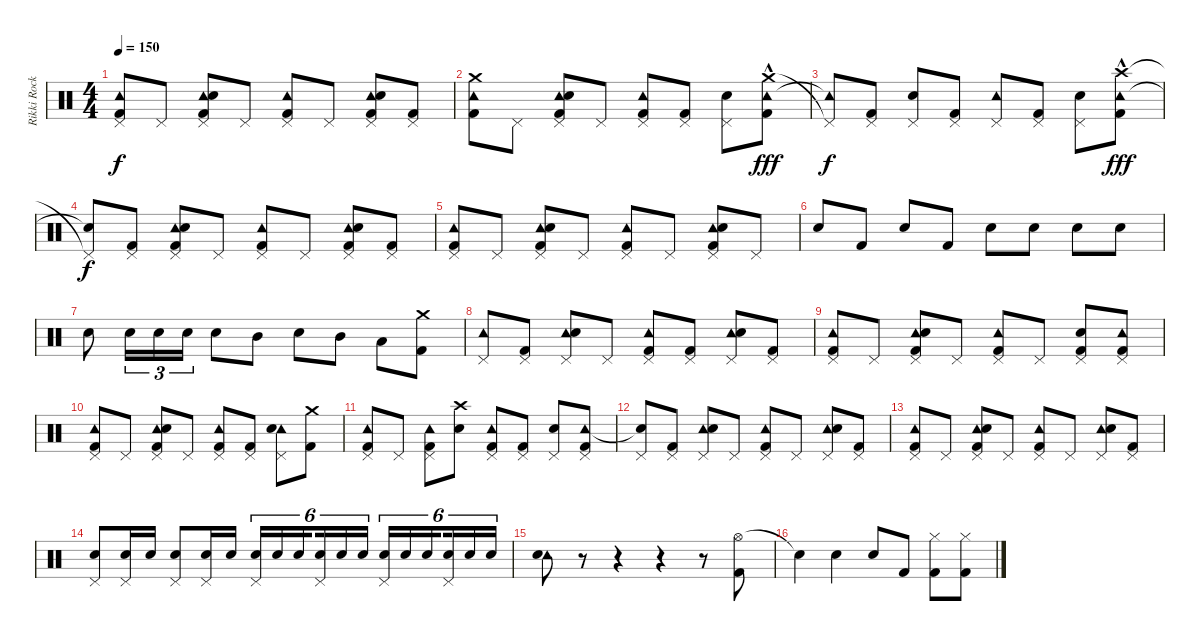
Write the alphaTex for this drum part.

\track ("Rikki Rockett - Drums" "Rikki Rock") {instrument percussion}
\staff {score}
\articulation defaults
\ts (4 4)
\tempo 150
\clef neutral
\ks c
("Tambourine (hit)" "Pedal Hi-Hat (hit)" "Kick (hit) 2").8{dy f} "Pedal Hi-Hat (hit)".8 ("Tambourine (hit)" "Pedal Hi-Hat (hit)" "Electric Snare (hit)" "Kick (hit) 2").8 "Pedal Hi-Hat (hit)".8 ("Tambourine (hit)" "Pedal Hi-Hat (hit)" "Kick (hit) 2").8 "Pedal Hi-Hat (hit)".8 ("Tambourine (hit)" "Pedal Hi-Hat (hit)" "Electric Snare (hit)" "Kick (hit) 2").8 ("Pedal Hi-Hat (hit)" "Kick (hit) 2").8 |
("Tambourine (hit)" "Crash medium (hit)" "Kick (hit) 2").8 "Pedal Hi-Hat (hit)".8 ("Tambourine (hit)" "Pedal Hi-Hat (hit)" "Electric Snare (hit)" "Kick (hit) 2").8 "Pedal Hi-Hat (hit)".8 ("Tambourine (hit)" "Pedal Hi-Hat (hit)" "Kick (hit) 2").8 ("Pedal Hi-Hat (hit)" "Kick (hit) 2").8 ("Pedal Hi-Hat (hit)" "Electric Snare (hit)").8 ("Tambourine (hit)"{hac} "Crash medium (hit)" "Kick (hit) 2").8{dy fff} |
("Tambourine (hit)"{t} "Pedal Hi-Hat (hit)"{t}).8{dy f} ("Pedal Hi-Hat (hit)" "Kick (hit) 2").8 ("Pedal Hi-Hat (hit)" "Electric Snare (hit)").8 ("Pedal Hi-Hat (hit)" "Kick (hit) 2").8 ("Tambourine (hit)" "Pedal Hi-Hat (hit)").8 ("Pedal Hi-Hat (hit)" "Kick (hit) 2").8 ("Pedal Hi-Hat (hit)" "Electric Snare (hit)").8 ("Tambourine (hit)"{hac} "Crash high (hit)" "Kick (hit) 2").8{dy fff} |
("Snare (hit)"{t} "Pedal Hi-Hat (hit)"{t}).8{dy f} ("Pedal Hi-Hat (hit)" "Kick (hit) 2").8 ("Tambourine (hit)" "Pedal Hi-Hat (hit)" "Electric Snare (hit)" "Kick (hit) 2").8 "Pedal Hi-Hat (hit)".8 ("Tambourine (hit)" "Pedal Hi-Hat (hit)" "Kick (hit) 2").8 "Pedal Hi-Hat (hit)".8 ("Tambourine (hit)" "Pedal Hi-Hat (hit)" "Electric Snare (hit)" "Kick (hit) 2").8 ("Pedal Hi-Hat (hit)" "Kick (hit) 2").8 |
("Tambourine (hit)" "Pedal Hi-Hat (hit)" "Kick (hit) 2").8 "Pedal Hi-Hat (hit)".8 ("Tambourine (hit)" "Pedal Hi-Hat (hit)" "Electric Snare (hit)" "Kick (hit) 2").8 "Pedal Hi-Hat (hit)".8 ("Tambourine (hit)" "Pedal Hi-Hat (hit)" "Kick (hit) 2").8 "Pedal Hi-Hat (hit)".8 ("Tambourine (hit)" "Pedal Hi-Hat (hit)" "Electric Snare (hit)" "Kick (hit) 2").8 "Pedal Hi-Hat (hit)".8 |
"Electric Snare (hit)".8 "Kick (hit) 2".8 "Electric Snare (hit)".8 "Kick (hit) 2".8 "Electric Snare (hit)".8 "Electric Snare (hit)".8 "Electric Snare (hit)".8 "Electric Snare (hit)".8 |
"Electric Snare (hit)".8 "Electric Snare (hit)".16{tu (3 2)} "Electric Snare (hit)".16{tu (3 2)} "Electric Snare (hit)".16{tu (3 2)} "Electric Snare (hit)".8 "Mid Tom (hit)".8 "Electric Snare (hit)".8 "Mid Tom (hit)".8 "Low Tom (hit)".8 ("Crash medium (hit)" "Kick (hit) 2").8 |
("Tambourine (hit)" "Pedal Hi-Hat (hit)").8 ("Pedal Hi-Hat (hit)" "Kick (hit) 2").8 ("Tambourine (hit)" "Pedal Hi-Hat (hit)" "Electric Snare (hit)").8 "Pedal Hi-Hat (hit)".8 ("Tambourine (hit)" "Pedal Hi-Hat (hit)" "Kick (hit) 2").8 ("Pedal Hi-Hat (hit)" "Kick (hit) 2").8 ("Tambourine (hit)" "Pedal Hi-Hat (hit)" "Electric Snare (hit)").8 ("Pedal Hi-Hat (hit)" "Kick (hit) 2").8 |
("Tambourine (hit)" "Pedal Hi-Hat (hit)" "Kick (hit) 2").8 "Pedal Hi-Hat (hit)".8 ("Tambourine (hit)" "Pedal Hi-Hat (hit)" "Electric Snare (hit)" "Kick (hit) 2").8 "Pedal Hi-Hat (hit)".8 ("Tambourine (hit)" "Pedal Hi-Hat (hit)" "Kick (hit) 2").8 "Pedal Hi-Hat (hit)".8 ("Pedal Hi-Hat (hit)" "Electric Snare (hit)" "Kick (hit) 2").8 ("Tambourine (hit)" "Pedal Hi-Hat (hit)" "Kick (hit) 2").8 |
("Tambourine (hit)" "Pedal Hi-Hat (hit)" "Kick (hit) 2").8 "Pedal Hi-Hat (hit)".8 ("Tambourine (hit)" "Pedal Hi-Hat (hit)" "Electric Snare (hit)" "Kick (hit) 2").8 "Pedal Hi-Hat (hit)".8 ("Tambourine (hit)" "Pedal Hi-Hat (hit)" "Kick (hit) 2").8 ("Pedal Hi-Hat (hit)" "Kick (hit) 2").8 ("Tambourine (hit)" "Pedal Hi-Hat (hit)" "Electric Snare (hit)").8 ("Crash medium (hit)" "Kick (hit) 2").8 |
("Tambourine (hit)" "Pedal Hi-Hat (hit)" "Kick (hit) 2").8 "Pedal Hi-Hat (hit)".8 ("Tambourine (hit)" "Pedal Hi-Hat (hit)" "Kick (hit) 2").8 ("Crash high (hit)" "Electric Snare (hit)").8 ("Tambourine (hit)" "Pedal Hi-Hat (hit)" "Kick (hit) 2").8 ("Pedal Hi-Hat (hit)" "Kick (hit) 2").8 ("Pedal Hi-Hat (hit)" "Electric Snare (hit)").8 ("Tambourine (hit)" "Pedal Hi-Hat (hit)" "Kick (hit) 2").8 |
("Snare (hit)"{t} "Pedal Hi-Hat (hit)").8 ("Pedal Hi-Hat (hit)" "Kick (hit) 2").8 ("Tambourine (hit)" "Pedal Hi-Hat (hit)" "Electric Snare (hit)").8 "Pedal Hi-Hat (hit)".8 ("Tambourine (hit)" "Pedal Hi-Hat (hit)" "Kick (hit) 2").8 "Pedal Hi-Hat (hit)".8 ("Tambourine (hit)" "Pedal Hi-Hat (hit)" "Electric Snare (hit)").8 ("Pedal Hi-Hat (hit)" "Kick (hit) 2").8 |
("Tambourine (hit)" "Pedal Hi-Hat (hit)" "Kick (hit) 2").8 "Pedal Hi-Hat (hit)".8 ("Tambourine (hit)" "Pedal Hi-Hat (hit)" "Electric Snare (hit)" "Kick (hit) 2").8 "Pedal Hi-Hat (hit)".8 ("Tambourine (hit)" "Pedal Hi-Hat (hit)" "Kick (hit) 2").8 "Pedal Hi-Hat (hit)".8 ("Tambourine (hit)" "Pedal Hi-Hat (hit)" "Electric Snare (hit)").8 ("Pedal Hi-Hat (hit)" "Kick (hit) 2").8 |
("Pedal Hi-Hat (hit)" "Electric Snare (hit)").8 ("Pedal Hi-Hat (hit)" "Electric Snare (hit)").16 "Electric Snare (hit)".16 ("Pedal Hi-Hat (hit)" "Electric Snare (hit)").8 ("Pedal Hi-Hat (hit)" "Electric Snare (hit)").16 "Electric Snare (hit)".16 ("Pedal Hi-Hat (hit)" "Electric Snare (hit)").16{tu (6 4)} "Electric Snare (hit)".16{tu (6 4)} "Electric Snare (hit)".16{tu (6 4) beam splitsecondary} ("Pedal Hi-Hat (hit)" "Electric Snare (hit)").16{tu (6 4)} "Electric Snare (hit)".16{tu (6 4)} "Electric Snare (hit)".16{tu (6 4)} ("Pedal Hi-Hat (hit)" "Electric Snare (hit)").16{tu (6 4)} "Electric Snare (hit)".16{tu (6 4)} "Electric Snare (hit)".16{tu (6 4) beam splitsecondary} ("Pedal Hi-Hat (hit)" "Electric Snare (hit)").16{tu (6 4)} "Electric Snare (hit)".16{tu (6 4)} "Electric Snare (hit)".16{tu (6 4)} |
("Tambourine (hit)" "Electric Snare (hit)").8 r.8 r.4 r.4 r.8 ("Hi-Hat (open)" "Kick (hit) 2").8 |
"Snare (hit)"{t}.4 "Electric Snare (hit)".4 "Electric Snare (hit)".8 "Kick (hit) 2".8 ("Hi-Hat (closed)" "Kick (hit) 2").8 ("Hi-Hat (closed)" "Kick (hit) 2").8
